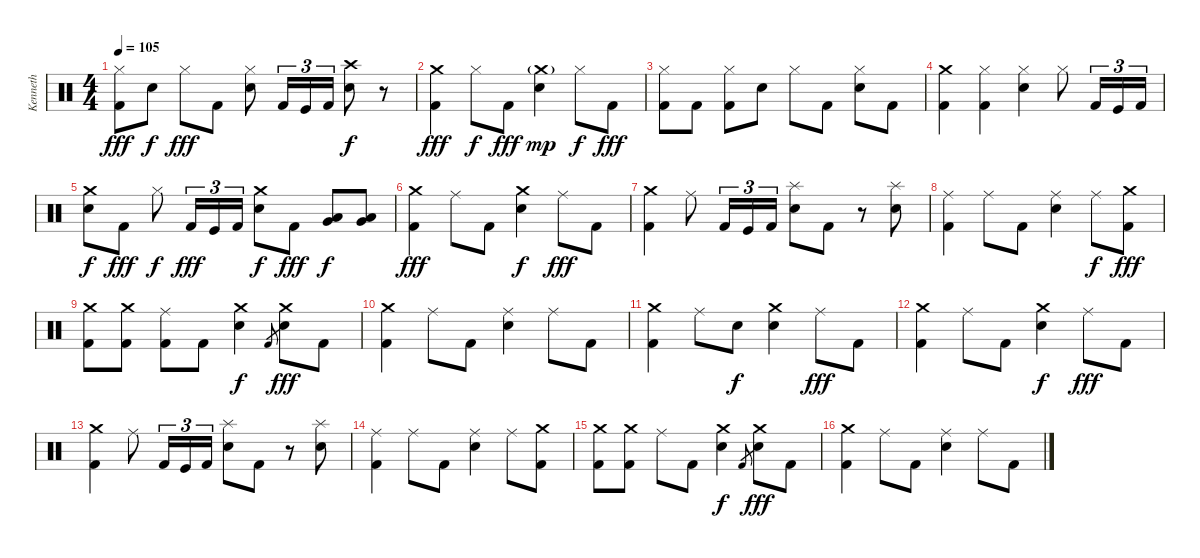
\track ("Kenneth" "Kenneth") {instrument percussion}
\staff {score}
\articulation defaults
\ts (4 4)
\tempo 105
\clef neutral
\ks c
("Hi-Hat (closed)" "Kick (hit) 2").8{dy fff} "Electric Snare (hit)".8{dy f} "Hi-Hat (closed)".8{dy fff} "Kick (hit) 2".8 ("Hi-Hat (closed)" "Electric Snare (hit)").8 "Kick (hit) 2".16{tu (3 2)} "Kick (hit)".16{tu (3 2)} "Kick (hit) 2".16{tu (3 2)} ("Crash high (hit)" "Electric Snare (hit)").8{dy f} r.8 |
("Crash medium (hit)" "Kick (hit) 2").4{dy fff} "Hi-Hat (closed)".8{dy f} "Kick (hit) 2".8{dy fff} ("Crash medium (hit)"{g} "Electric Snare (hit)").4{dy mp} "Hi-Hat (closed)".8{dy f} "Kick (hit) 2".8{dy fff} |
("Hi-Hat (closed)" "Kick (hit) 2").8 "Kick (hit) 2".8 ("Hi-Hat (closed)" "Kick (hit) 2").8 "Electric Snare (hit)".8 "Hi-Hat (closed)".8 "Kick (hit) 2".8 ("Hi-Hat (closed)" "Electric Snare (hit)").8 "Kick (hit) 2".8 |
("Crash medium (hit)" "Kick (hit) 2").4 ("Hi-Hat (closed)" "Kick (hit) 2").4 ("Hi-Hat (closed)" "Electric Snare (hit)").4 "Hi-Hat (closed)".8 "Kick (hit) 2".16{tu (3 2)} "Kick (hit)".16{tu (3 2)} "Kick (hit) 2".16{tu (3 2)} |
("Crash medium (hit)" "Electric Snare (hit)").8{dy f} "Kick (hit) 2".8{dy fff} "Hi-Hat (closed)".8{dy f} "Kick (hit) 2".16{tu (3 2) dy fff} "Kick (hit)".16{tu (3 2)} "Kick (hit) 2".16{tu (3 2)} ("Crash medium (hit)" "Electric Snare (hit)").8{dy f} "Kick (hit) 2".8{dy fff} ("Very Low Tom (hit)" "Low Tom (hit)").8{dy f} ("Very Low Tom (hit)" "Low Tom (hit)").8 |
("Crash medium (hit)" "Kick (hit) 2").4{dy fff} "Ride (middle)".8 "Kick (hit) 2".8 ("Crash medium (hit)" "Electric Snare (hit)").4{dy f} "Ride (middle)".8{dy fff} "Kick (hit) 2".8 |
("Crash medium (hit)" "Kick (hit) 2").4 "Ride (middle)".8 "Kick (hit) 2".16{tu (3 2)} "Kick (hit)".16{tu (3 2)} "Kick (hit) 2".16{tu (3 2)} ("Splash (hit)" "Electric Snare (hit)").8 "Kick (hit) 2".8 r.8 ("Splash (hit)" "Electric Snare (hit)").8 |
("Ride (middle)" "Kick (hit) 2").4 "Ride (middle)".8 "Kick (hit) 2".8 ("Ride (middle)" "Electric Snare (hit)").4 "Ride (middle)".8{dy f} ("Crash medium (hit)" "Kick (hit) 2").8{dy fff} |
("Crash medium (hit)" "Kick (hit) 2").8 ("Crash medium (hit)" "Kick (hit) 2").8 ("Ride (middle)" "Kick (hit) 2").8 "Kick (hit) 2".8 ("Crash medium (hit)" "Electric Snare (hit)").4{dy f} "Kick (hit) 2".8{gr} ("Crash medium (hit)" "Electric Snare (hit)").8{dy fff} "Kick (hit) 2".8 |
("Crash medium (hit)" "Kick (hit) 2").4 "Ride (middle)".8 "Kick (hit) 2".8 ("Ride (middle)" "Electric Snare (hit)").4 "Ride (middle)".8 "Kick (hit) 2".8 |
("Crash medium (hit)" "Kick (hit) 2").4 "Ride (middle)".8 "Electric Snare (hit)".8{dy f} ("Crash medium (hit)" "Electric Snare (hit)").4 "Ride (middle)".8{dy fff} "Kick (hit) 2".8 |
("Crash medium (hit)" "Kick (hit) 2").4 "Ride (middle)".8 "Kick (hit) 2".8 ("Crash medium (hit)" "Electric Snare (hit)").4{dy f} "Ride (middle)".8{dy fff} "Kick (hit) 2".8 |
("Crash medium (hit)" "Kick (hit) 2").4 "Ride (middle)".8 "Kick (hit) 2".16{tu (3 2)} "Kick (hit)".16{tu (3 2)} "Kick (hit) 2".16{tu (3 2)} ("Splash (hit)" "Electric Snare (hit)").8 "Kick (hit) 2".8 r.8 ("Splash (hit)" "Electric Snare (hit)").8 |
("Ride (middle)" "Kick (hit) 2").4 "Ride (middle)".8 "Kick (hit) 2".8 ("Ride (middle)" "Electric Snare (hit)").4 "Ride (middle)".8 ("Crash medium (hit)" "Kick (hit) 2").8 |
("Crash medium (hit)" "Kick (hit) 2").8 ("Crash medium (hit)" "Kick (hit) 2").8 "Ride (middle)".8 "Kick (hit) 2".8 ("Crash medium (hit)" "Electric Snare (hit)").4{dy f} "Kick (hit) 2".8{gr} ("Crash medium (hit)" "Electric Snare (hit)").8{dy fff} "Kick (hit) 2".8 |
("Crash medium (hit)" "Kick (hit) 2").4 "Ride (middle)".8 "Kick (hit) 2".8 ("Ride (middle)" "Electric Snare (hit)").4 "Ride (middle)".8 "Kick (hit) 2".8
